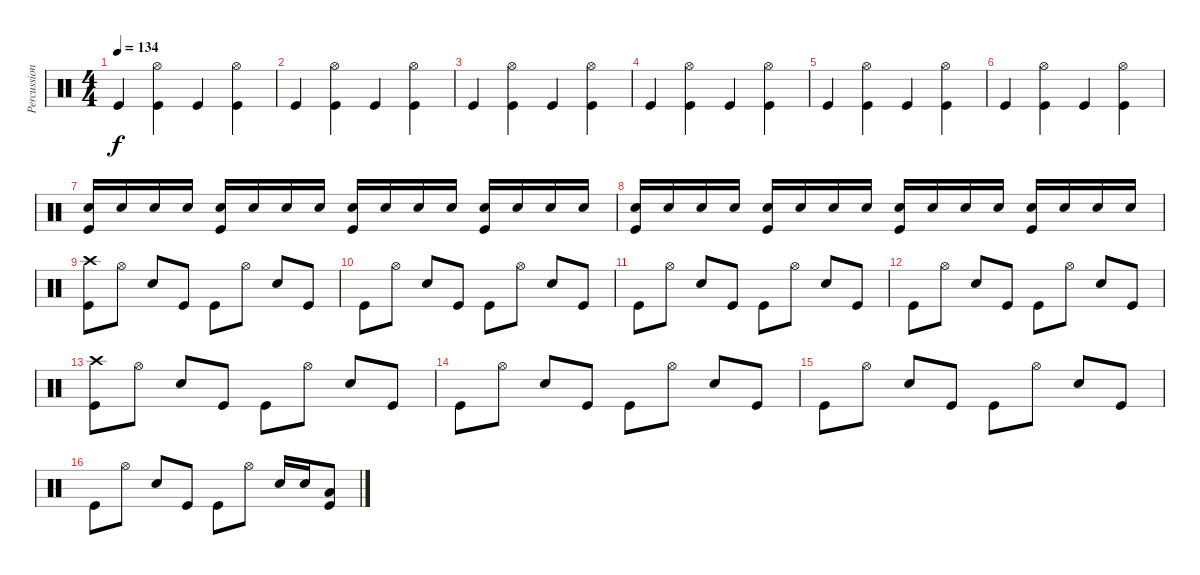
\track ("Percussion" "Percussion") {instrument percussion}
\staff {score}
\articulation defaults
\ts (4 4)
\tempo 134
\clef neutral
\ks c "Kick (hit)".4{dy f}
("Hi-Hat (open)" "Kick (hit)").4 "Kick (hit)".4 ("Hi-Hat (open)" "Kick (hit)").4 |
"Kick (hit)".4 ("Hi-Hat (open)" "Kick (hit)").4 "Kick (hit)".4 ("Hi-Hat (open)" "Kick (hit)").4 |
"Kick (hit)".4 ("Hi-Hat (open)" "Kick (hit)").4 "Kick (hit)".4 ("Hi-Hat (open)" "Kick (hit)").4 |
"Kick (hit)".4 ("Hi-Hat (open)" "Kick (hit)").4 "Kick (hit)".4 ("Hi-Hat (open)" "Kick (hit)").4 |
"Kick (hit)".4 ("Hi-Hat (open)" "Kick (hit)").4 "Kick (hit)".4 ("Hi-Hat (open)" "Kick (hit)").4 |
"Kick (hit)".4 ("Hi-Hat (open)" "Kick (hit)").4 "Kick (hit)".4 ("Hi-Hat (open)" "Kick (hit)").4 |
("Electric Snare (hit)" "Kick (hit)").16 "Electric Snare (hit)".16 "Electric Snare (hit)".16 "Electric Snare (hit)".16 ("Electric Snare (hit)" "Kick (hit)").16 "Electric Snare (hit)".16 "Electric Snare (hit)".16 "Electric Snare (hit)".16 ("Electric Snare (hit)" "Kick (hit)").16 "Electric Snare (hit)".16 "Electric Snare (hit)".16 "Electric Snare (hit)".16 ("Electric Snare (hit)" "Kick (hit)").16 "Electric Snare (hit)".16 "Electric Snare (hit)".16 "Electric Snare (hit)".16 |
("Electric Snare (hit)" "Kick (hit)").16 "Electric Snare (hit)".16 "Electric Snare (hit)".16 "Electric Snare (hit)".16 ("Electric Snare (hit)" "Kick (hit)").16 "Electric Snare (hit)".16 "Electric Snare (hit)".16 "Electric Snare (hit)".16 ("Electric Snare (hit)" "Kick (hit)").16 "Electric Snare (hit)".16 "Electric Snare (hit)".16 "Electric Snare (hit)".16 ("Electric Snare (hit)" "Kick (hit)").16 "Electric Snare (hit)".16 "Electric Snare (hit)".16 "Electric Snare (hit)".16 |
("Crash high (hit)" "Kick (hit)").8 "Hi-Hat (open)".8 "Electric Snare (hit)".8 "Kick (hit)".8 "Kick (hit)".8 "Hi-Hat (open)".8 "Electric Snare (hit)".8 "Kick (hit)".8 |
"Kick (hit)".8 "Hi-Hat (open)".8 "Electric Snare (hit)".8 "Kick (hit)".8 "Kick (hit)".8 "Hi-Hat (open)".8 "Electric Snare (hit)".8 "Kick (hit)".8 |
"Kick (hit)".8 "Hi-Hat (open)".8 "Electric Snare (hit)".8 "Kick (hit)".8 "Kick (hit)".8 "Hi-Hat (open)".8 "Electric Snare (hit)".8 "Kick (hit)".8 |
"Kick (hit)".8 "Hi-Hat (open)".8 "Electric Snare (hit)".8 "Kick (hit)".8 "Kick (hit)".8 "Hi-Hat (open)".8 "Electric Snare (hit)".8 "Kick (hit)".8 |
("Crash high (hit)" "Kick (hit)").8 "Hi-Hat (open)".8 "Electric Snare (hit)".8 "Kick (hit)".8 "Kick (hit)".8 "Hi-Hat (open)".8 "Electric Snare (hit)".8 "Kick (hit)".8 |
"Kick (hit)".8 "Hi-Hat (open)".8 "Electric Snare (hit)".8 "Kick (hit)".8 "Kick (hit)".8 "Hi-Hat (open)".8 "Electric Snare (hit)".8 "Kick (hit)".8 |
"Kick (hit)".8 "Hi-Hat (open)".8 "Electric Snare (hit)".8 "Kick (hit)".8 "Kick (hit)".8 "Hi-Hat (open)".8 "Electric Snare (hit)".8 "Kick (hit)".8 |
"Kick (hit)".8 "Hi-Hat (open)".8 "Electric Snare (hit)".8 "Kick (hit)".8 "Kick (hit)".8 "Hi-Hat (open)".8 "Electric Snare (hit)".16 "Electric Snare (hit)".16 ("Low Tom (hit)" "Kick (hit)").8
